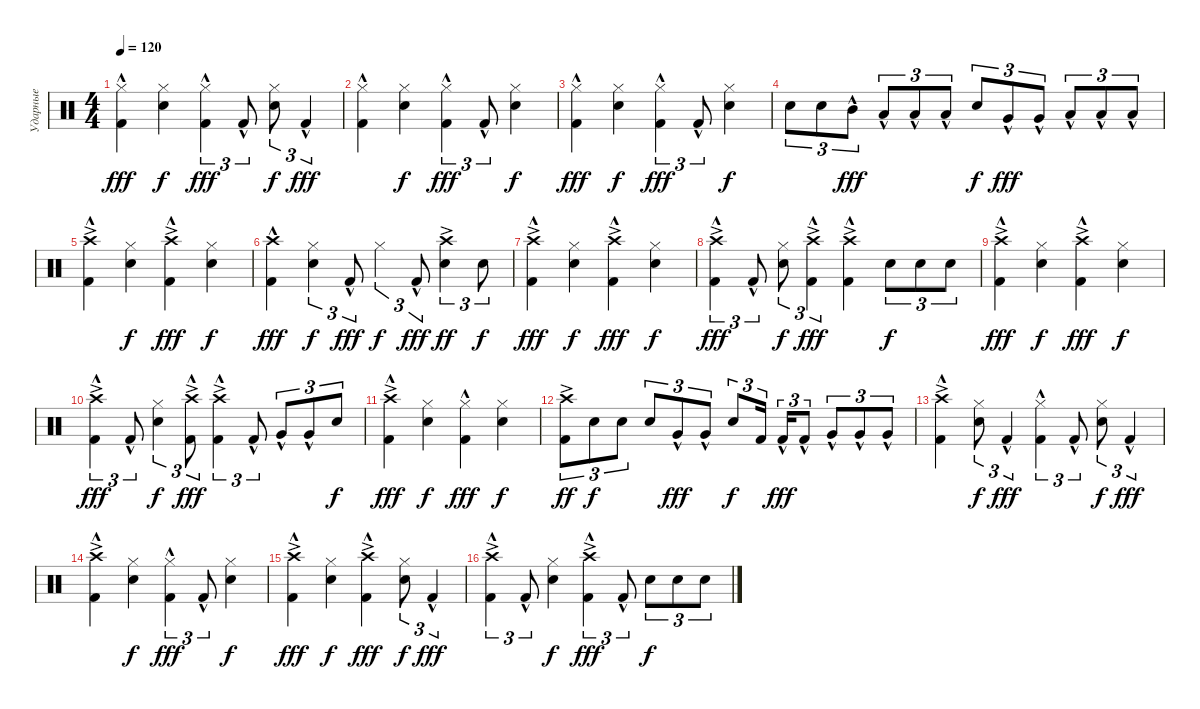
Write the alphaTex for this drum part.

\track ("Ударные" "Ударные") {instrument percussion}
\staff {score}
\articulation defaults
\ts (4 4)
\tempo 120
\clef neutral
\ks c
("Hi-Hat (closed)" "Kick (hit) 2"{hac}).4{dy fff} ("Hi-Hat (closed)" "Snare (hit) 2").4{dy f} ("Hi-Hat (closed)" "Kick (hit) 2"{hac}).4{tu (3 2) dy fff} "Kick (hit) 2"{hac}.8{tu (3 2)} ("Hi-Hat (closed)" "Snare (hit) 2").8{tu (3 2) dy f} "Kick (hit) 2"{hac}.4{tu (3 2) dy fff} |
("Hi-Hat (closed)" "Kick (hit) 2"{hac}).4 ("Hi-Hat (closed)" "Snare (hit) 2").4{dy f} ("Hi-Hat (closed)" "Kick (hit) 2"{hac}).4{tu (3 2) dy fff} "Kick (hit) 2"{hac}.8{tu (3 2)} ("Hi-Hat (closed)" "Snare (hit) 2").4{dy f} |
("Hi-Hat (closed)" "Kick (hit) 2"{hac}).4{dy fff} ("Hi-Hat (closed)" "Snare (hit) 2").4{dy f} ("Hi-Hat (closed)" "Kick (hit) 2"{hac}).4{tu (3 2) dy fff} "Kick (hit) 2"{hac}.8{tu (3 2)} ("Hi-Hat (closed)" "Snare (hit) 2").4{dy f} |
"Snare (hit) 2".8{tu (3 2)} "Snare (hit) 2".8{tu (3 2)} "Mid Tom (hit)"{hac}.8{tu (3 2) dy fff} "Low Tom (hit)"{hac}.8{tu (3 2)} "Low Tom (hit)"{hac}.8{tu (3 2)} "Low Tom (hit)"{hac}.8{tu (3 2)} "Snare (hit) 2".8{tu (3 2) dy f} "Very Low Tom (hit)"{hac}.8{tu (3 2) dy fff} "Very Low Tom (hit)"{hac}.8{tu (3 2)} "Low Floor Tom (hit)"{hac}.8{tu (3 2)} "Low Floor Tom (hit)"{hac}.8{tu (3 2)} "Low Floor Tom (hit)"{hac}.8{tu (3 2)} |
("Crash high (hit)"{ac} "Kick (hit) 2"{hac}).4 ("Hi-Hat (closed)" "Snare (hit) 2").4{dy f} ("Crash high (hit)"{ac} "Kick (hit) 2"{hac}).4{dy fff} ("Hi-Hat (closed)" "Snare (hit) 2").4{dy f} |
("Crash high (hit)" "Kick (hit) 2"{hac}).4{dy fff} ("Hi-Hat (closed)" "Snare (hit) 2").4{tu (3 2) dy f} "Kick (hit) 2"{hac}.8{tu (3 2) dy fff} "Hi-Hat (closed)".4{tu (3 2) dy f} "Kick (hit) 2"{hac}.8{tu (3 2) dy fff} ("Crash high (hit)"{ac} "Snare (hit) 2").4{tu (3 2) dy ff} "Snare (hit) 2".8{tu (3 2) dy f} |
("Crash high (hit)"{ac} "Kick (hit) 2"{hac}).4{dy fff} ("Hi-Hat (closed)" "Snare (hit) 2").4{dy f} ("Crash high (hit)"{ac} "Kick (hit) 2"{hac}).4{dy fff} ("Hi-Hat (closed)" "Snare (hit) 2").4{dy f} |
("Crash high (hit)"{ac} "Kick (hit) 2"{hac}).4{tu (3 2) dy fff} "Kick (hit) 2"{hac}.8{tu (3 2)} ("Hi-Hat (closed)" "Snare (hit) 2").8{tu (3 2) dy f} ("Crash high (hit)"{ac} "Kick (hit) 2"{hac}).4{tu (3 2) dy fff} ("Crash high (hit)"{ac} "Kick (hit) 2"{hac}).4 "Snare (hit) 2".8{tu (3 2) dy f} "Snare (hit) 2".8{tu (3 2)} "Snare (hit) 2".8{tu (3 2)} |
("Crash high (hit)"{ac} "Kick (hit) 2"{hac}).4{dy fff} ("Hi-Hat (closed)" "Snare (hit) 2").4{dy f} ("Crash high (hit)"{ac} "Kick (hit) 2"{hac}).4{dy fff} ("Hi-Hat (closed)" "Snare (hit) 2").4{dy f} |
("Crash high (hit)"{ac} "Kick (hit) 2"{hac}).4{tu (3 2) dy fff} "Kick (hit) 2"{hac}.8{tu (3 2)} ("Hi-Hat (closed)" "Snare (hit) 2").4{tu (3 2) dy f} ("Crash high (hit)"{ac} "Kick (hit) 2"{hac}).8{tu (3 2) dy fff} ("Crash high (hit)"{ac} "Kick (hit) 2"{hac}).4{tu (3 2)} "Kick (hit) 2"{hac}.8{tu (3 2)} "Very Low Tom (hit)"{hac}.8{tu (3 2)} "Very Low Tom (hit)"{hac}.8{tu (3 2)} "Snare (hit) 2".8{tu (3 2) dy f} |
("Crash high (hit)"{ac} "Kick (hit) 2"{hac}).4{dy fff} ("Hi-Hat (closed)" "Snare (hit) 2").4{dy f} ("Hi-Hat (closed)" "Kick (hit) 2"{hac}).4{dy fff} ("Hi-Hat (closed)" "Snare (hit) 2").4{dy f} |
("Crash high (hit)"{ac} "Kick (hit) 2").8{tu (3 2) dy ff} "Snare (hit) 2".8{tu (3 2) dy f} "Snare (hit) 2".8{tu (3 2)} "Snare (hit) 2".8{tu (3 2)} "Very Low Tom (hit)"{hac}.8{tu (3 2) dy fff} "Very Low Tom (hit)"{hac}.8{tu (3 2)} "Snare (hit) 2".8{tu (3 2) dy f} "Kick (hit) 2".16{tu (3 2) beam splitsecondary} "Kick (hit) 2"{hac}.16{tu (3 2) dy fff} "Kick (hit) 2"{hac}.8{tu (3 2)} "Very Low Tom (hit)"{hac}.8{tu (3 2)} "Very Low Tom (hit)"{hac}.8{tu (3 2)} "Very Low Tom (hit)"{hac}.8{tu (3 2)} |
("Crash high (hit)"{ac} "Kick (hit) 2"{hac}).4 ("Hi-Hat (closed)" "Snare (hit) 2").8{tu (3 2) dy f} "Kick (hit) 2"{hac}.4{tu (3 2) dy fff} ("Hi-Hat (closed)" "Kick (hit) 2"{hac}).4{tu (3 2)} "Kick (hit) 2"{hac}.8{tu (3 2)} ("Hi-Hat (closed)" "Snare (hit) 2").8{tu (3 2) dy f} "Kick (hit) 2"{hac}.4{tu (3 2) dy fff} |
("Crash high (hit)"{ac} "Kick (hit) 2"{hac}).4 ("Hi-Hat (closed)" "Snare (hit) 2").4{dy f} ("Hi-Hat (closed)" "Kick (hit) 2"{hac}).4{tu (3 2) dy fff} "Kick (hit) 2"{hac}.8{tu (3 2)} ("Hi-Hat (closed)" "Snare (hit) 2").4{dy f} |
("Crash high (hit)"{ac} "Kick (hit) 2"{hac}).4{dy fff} ("Hi-Hat (closed)" "Snare (hit) 2").4{dy f} ("Crash high (hit)"{ac} "Kick (hit) 2"{hac}).4{dy fff} ("Hi-Hat (closed)" "Snare (hit) 2").8{tu (3 2) dy f} "Kick (hit) 2"{hac}.4{tu (3 2) dy fff} |
("Crash high (hit)"{ac} "Kick (hit) 2"{hac}).4{tu (3 2)} "Kick (hit) 2"{hac}.8{tu (3 2)} ("Hi-Hat (closed)" "Snare (hit) 2").4{dy f} ("Crash high (hit)"{ac} "Kick (hit) 2"{hac}).4{tu (3 2) dy fff} "Kick (hit) 2"{hac}.8{tu (3 2)} "Snare (hit) 2".8{tu (3 2) dy f} "Snare (hit) 2".8{tu (3 2)} "Snare (hit) 2".8{tu (3 2)}
